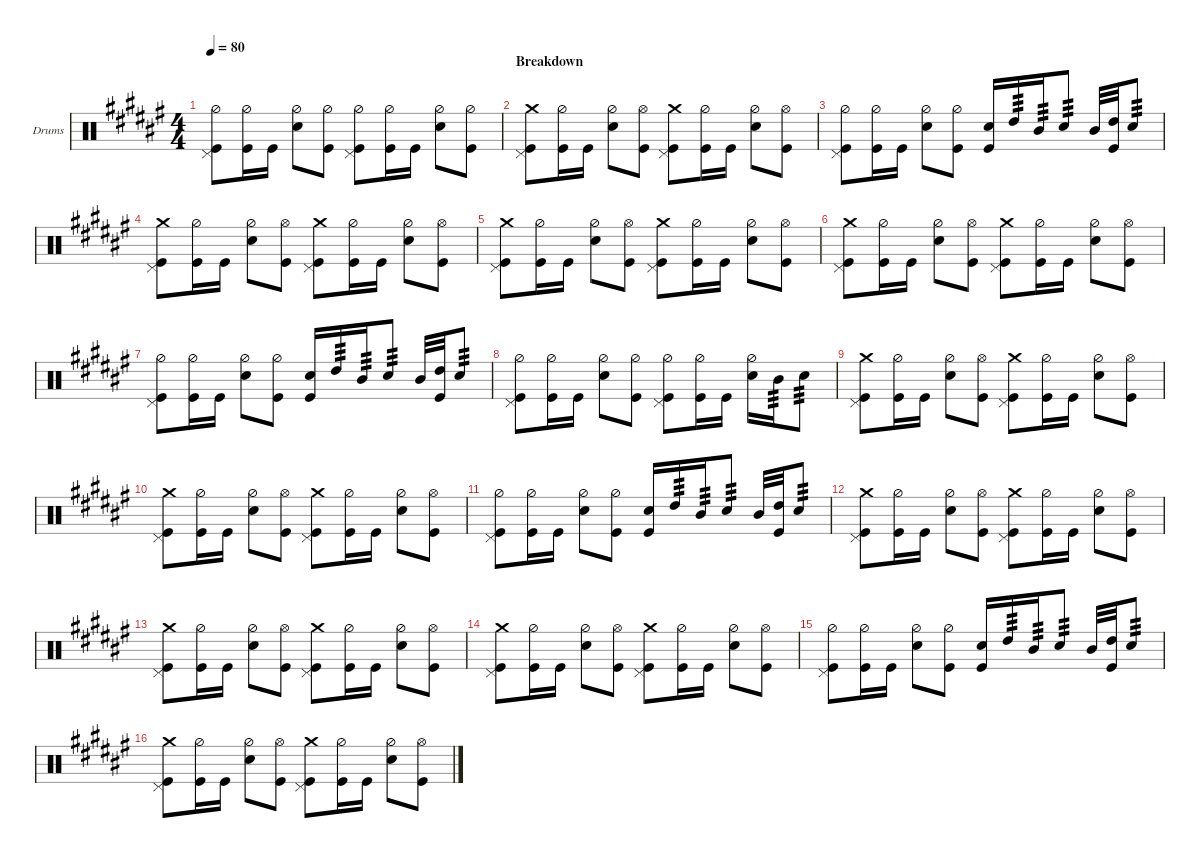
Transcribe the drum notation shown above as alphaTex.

\defaultSystemsLayout 4
\hideDynamics
\bracketExtendMode groupsimilarinstruments
\multiBarRest
\firstSystemTrackNameOrientation horizontal
\otherSystemsTrackNameOrientation horizontal
\track ("Drumkit" "Drums") {multiBarRest instrument percussion}
\staff {score}
\articulation defaults
\ts (4 4)
\tempo 80
\clef neutral
\ks f#
("Kick (hit)" "Pedal Hi-Hat (hit)" "Hi-Hat (half)").8{dy mf} ("Kick (hit)" "Hi-Hat (half)").16 "Kick (hit)".16 ("Snare (hit) 2" "Hi-Hat (half)").8 ("Kick (hit)" "Hi-Hat (half)").8 ("Kick (hit)" "Pedal Hi-Hat (hit)" "Hi-Hat (half)").8 ("Kick (hit)" "Hi-Hat (half)").16 "Kick (hit)".16 ("Snare (hit) 2" "Hi-Hat (half)").8 ("Kick (hit)" "Hi-Hat (half)").8 |
\section ("" "Breakdown")
("Kick (hit)" "Pedal Hi-Hat (hit)" "Crash medium (hit)").8 ("Kick (hit)" "Hi-Hat (half)").16 "Kick (hit)".16 ("Snare (hit) 2" "Hi-Hat (half)").8 ("Kick (hit)" "Hi-Hat (open)").8 ("Kick (hit)" "Pedal Hi-Hat (hit)" "Crash medium (hit)").8 ("Kick (hit)" "Hi-Hat (half)").16 "Kick (hit)".16 ("Snare (hit) 2" "Hi-Hat (half)").8 ("Kick (hit)" "Hi-Hat (open)").8 |
("Kick (hit)" "Pedal Hi-Hat (hit)" "Hi-Hat (half)").8 ("Kick (hit)" "Hi-Hat (half)").16 "Kick (hit)".16 ("Snare (hit) 2" "Hi-Hat (half)").8 ("Kick (hit)" "Hi-Hat (half)").8 ("Snare (hit) 2" "Kick (hit)").16 "High Tom (hit)".16{tp 3} "Mid Tom (hit)".16{tp 3} "Snare (hit) 2".8{tp 3} "Mid Tom (hit)".32 ("Kick (hit)" "High Tom (hit)").32 "Snare (hit) 2".8{tp 3} |
("Kick (hit)" "Pedal Hi-Hat (hit)" "Crash medium (hit)").8 ("Kick (hit)" "Hi-Hat (half)").16 "Kick (hit)".16 ("Snare (hit) 2" "Hi-Hat (half)").8 ("Kick (hit)" "Hi-Hat (open)").8 ("Kick (hit)" "Pedal Hi-Hat (hit)" "Crash medium (hit)").8 ("Kick (hit)" "Hi-Hat (half)").16 "Kick (hit)".16 ("Snare (hit) 2" "Hi-Hat (half)").8 ("Kick (hit)" "Hi-Hat (open)").8 |
("Kick (hit)" "Pedal Hi-Hat (hit)" "Crash medium (hit)").8 ("Kick (hit)" "Hi-Hat (half)").16 "Kick (hit)".16 ("Snare (hit) 2" "Hi-Hat (half)").8 ("Kick (hit)" "Hi-Hat (open)").8 ("Kick (hit)" "Pedal Hi-Hat (hit)" "Crash medium (hit)").8 ("Kick (hit)" "Hi-Hat (half)").16 "Kick (hit)".16 ("Snare (hit) 2" "Hi-Hat (half)").8 ("Kick (hit)" "Hi-Hat (open)").8 |
("Kick (hit)" "Pedal Hi-Hat (hit)" "Crash medium (hit)").8 ("Kick (hit)" "Hi-Hat (half)").16 "Kick (hit)".16 ("Snare (hit) 2" "Hi-Hat (half)").8 ("Kick (hit)" "Hi-Hat (open)").8 ("Kick (hit)" "Pedal Hi-Hat (hit)" "Crash medium (hit)").8 ("Kick (hit)" "Hi-Hat (half)").16 "Kick (hit)".16 ("Snare (hit) 2" "Hi-Hat (half)").8 ("Kick (hit)" "Hi-Hat (open)").8 |
("Kick (hit)" "Pedal Hi-Hat (hit)" "Hi-Hat (half)").8 ("Kick (hit)" "Hi-Hat (half)").16 "Kick (hit)".16 ("Snare (hit) 2" "Hi-Hat (half)").8 ("Kick (hit)" "Hi-Hat (half)").8 ("Snare (hit) 2" "Kick (hit)").16 "High Tom (hit)".16{tp 3} "Mid Tom (hit)".16{tp 3} "Snare (hit) 2".8{tp 3} "Mid Tom (hit)".32 ("Kick (hit)" "High Tom (hit)").32 "Snare (hit) 2".8{tp 3} |
("Kick (hit)" "Pedal Hi-Hat (hit)" "Hi-Hat (half)").8 ("Kick (hit)" "Hi-Hat (half)").16 "Kick (hit)".16 ("Snare (hit) 2" "Hi-Hat (half)").8 ("Kick (hit)" "Hi-Hat (half)").8 ("Kick (hit)" "Pedal Hi-Hat (hit)" "Hi-Hat (half)").8 ("Kick (hit)" "Hi-Hat (half)").16 "Kick (hit)".16 ("Snare (hit) 2" "Hi-Hat (half)").16 "Mid Tom (hit)".16{tp 3} "Snare (hit) 2".8{tp 3} |
("Kick (hit)" "Pedal Hi-Hat (hit)" "Crash medium (hit)").8 ("Kick (hit)" "Hi-Hat (half)").16 "Kick (hit)".16 ("Snare (hit) 2" "Hi-Hat (half)").8 ("Kick (hit)" "Hi-Hat (open)").8 ("Kick (hit)" "Pedal Hi-Hat (hit)" "Crash medium (hit)").8 ("Kick (hit)" "Hi-Hat (half)").16 "Kick (hit)".16 ("Snare (hit) 2" "Hi-Hat (half)").8 ("Kick (hit)" "Hi-Hat (open)").8 |
("Kick (hit)" "Pedal Hi-Hat (hit)" "Crash medium (hit)").8 ("Kick (hit)" "Hi-Hat (half)").16 "Kick (hit)".16 ("Snare (hit) 2" "Hi-Hat (half)").8 ("Kick (hit)" "Hi-Hat (open)").8 ("Kick (hit)" "Pedal Hi-Hat (hit)" "Crash medium (hit)").8 ("Kick (hit)" "Hi-Hat (half)").16 "Kick (hit)".16 ("Snare (hit) 2" "Hi-Hat (half)").8 ("Kick (hit)" "Hi-Hat (open)").8 |
("Kick (hit)" "Pedal Hi-Hat (hit)" "Hi-Hat (half)").8 ("Kick (hit)" "Hi-Hat (half)").16 "Kick (hit)".16 ("Snare (hit) 2" "Hi-Hat (half)").8 ("Kick (hit)" "Hi-Hat (half)").8 ("Snare (hit) 2" "Kick (hit)").16 "High Tom (hit)".16{tp 3} "Mid Tom (hit)".16{tp 3} "Snare (hit) 2".8{tp 3} "Mid Tom (hit)".32 ("Kick (hit)" "High Tom (hit)").32 "Snare (hit) 2".8{tp 3} |
("Kick (hit)" "Pedal Hi-Hat (hit)" "Crash medium (hit)").8 ("Kick (hit)" "Hi-Hat (half)").16 "Kick (hit)".16 ("Snare (hit) 2" "Hi-Hat (half)").8 ("Kick (hit)" "Hi-Hat (open)").8 ("Kick (hit)" "Pedal Hi-Hat (hit)" "Crash medium (hit)").8 ("Kick (hit)" "Hi-Hat (half)").16 "Kick (hit)".16 ("Snare (hit) 2" "Hi-Hat (half)").8 ("Kick (hit)" "Hi-Hat (open)").8 |
("Kick (hit)" "Pedal Hi-Hat (hit)" "Crash medium (hit)").8 ("Kick (hit)" "Hi-Hat (half)").16 "Kick (hit)".16 ("Snare (hit) 2" "Hi-Hat (half)").8 ("Kick (hit)" "Hi-Hat (open)").8 ("Kick (hit)" "Pedal Hi-Hat (hit)" "Crash medium (hit)").8 ("Kick (hit)" "Hi-Hat (half)").16 "Kick (hit)".16 ("Snare (hit) 2" "Hi-Hat (half)").8 ("Kick (hit)" "Hi-Hat (open)").8 |
("Kick (hit)" "Pedal Hi-Hat (hit)" "Crash medium (hit)").8 ("Kick (hit)" "Hi-Hat (half)").16 "Kick (hit)".16 ("Snare (hit) 2" "Hi-Hat (half)").8 ("Kick (hit)" "Hi-Hat (open)").8 ("Kick (hit)" "Pedal Hi-Hat (hit)" "Crash medium (hit)").8 ("Kick (hit)" "Hi-Hat (half)").16 "Kick (hit)".16 ("Snare (hit) 2" "Hi-Hat (half)").8 ("Kick (hit)" "Hi-Hat (open)").8 |
("Kick (hit)" "Pedal Hi-Hat (hit)" "Hi-Hat (half)").8 ("Kick (hit)" "Hi-Hat (half)").16 "Kick (hit)".16 ("Snare (hit) 2" "Hi-Hat (half)").8 ("Kick (hit)" "Hi-Hat (half)").8 ("Snare (hit) 2" "Kick (hit)").16 "High Tom (hit)".16{tp 3} "Mid Tom (hit)".16{tp 3} "Snare (hit) 2".8{tp 3} "Mid Tom (hit)".32 ("Kick (hit)" "High Tom (hit)").32 "Snare (hit) 2".8{tp 3} |
("Kick (hit)" "Pedal Hi-Hat (hit)" "Crash medium (hit)").8 ("Kick (hit)" "Hi-Hat (half)").16 "Kick (hit)".16 ("Snare (hit) 2" "Hi-Hat (half)").8 ("Kick (hit)" "Hi-Hat (open)").8 ("Kick (hit)" "Pedal Hi-Hat (hit)" "Crash medium (hit)").8 ("Kick (hit)" "Hi-Hat (half)").16 "Kick (hit)".16 ("Snare (hit) 2" "Hi-Hat (half)").8 ("Kick (hit)" "Hi-Hat (open)").8
